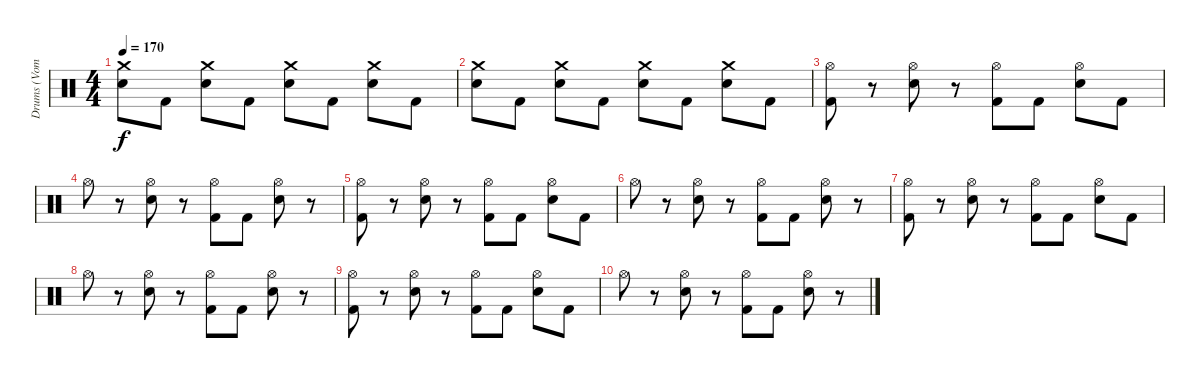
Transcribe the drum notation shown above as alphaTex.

\track ("Drums (Vom)" "Drums (Vom") {instrument percussion}
\staff {score}
\articulation defaults
\ts (4 4)
\tempo 170
\clef neutral
\ks c
("Crash medium (hit)" "Snare (hit) 2").8{dy f} "Kick (hit) 2".8 ("Crash medium (hit)" "Snare (hit) 2").8 "Kick (hit) 2".8 ("Crash medium (hit)" "Snare (hit) 2").8 "Kick (hit) 2".8 ("Crash medium (hit)" "Snare (hit) 2").8 "Kick (hit) 2".8 |
("Crash medium (hit)" "Snare (hit) 2").8 "Kick (hit) 2".8 ("Crash medium (hit)" "Snare (hit) 2").8 "Kick (hit) 2".8 ("Crash medium (hit)" "Snare (hit) 2").8 "Kick (hit) 2".8 ("Crash medium (hit)" "Snare (hit) 2").8 "Kick (hit) 2".8 |
("Hi-Hat (open)" "Kick (hit) 2").8 r.8 ("Hi-Hat (open)" "Snare (hit) 2").8 r.8 ("Hi-Hat (open)" "Kick (hit) 2").8 "Kick (hit) 2".8 ("Hi-Hat (open)" "Snare (hit) 2").8 "Kick (hit) 2".8 |
"Hi-Hat (open)".8 r.8 ("Hi-Hat (open)" "Snare (hit) 2").8 r.8 ("Hi-Hat (open)" "Kick (hit) 2").8 "Kick (hit) 2".8 ("Hi-Hat (open)" "Snare (hit) 2").8 r.8 |
("Hi-Hat (open)" "Kick (hit) 2").8 r.8 ("Hi-Hat (open)" "Snare (hit) 2").8 r.8 ("Hi-Hat (open)" "Kick (hit) 2").8 "Kick (hit) 2".8 ("Hi-Hat (open)" "Snare (hit) 2").8 "Kick (hit) 2".8 |
"Hi-Hat (open)".8 r.8 ("Hi-Hat (open)" "Snare (hit) 2").8 r.8 ("Hi-Hat (open)" "Kick (hit) 2").8 "Kick (hit) 2".8 ("Hi-Hat (open)" "Snare (hit) 2").8 r.8 |
("Hi-Hat (open)" "Kick (hit) 2").8 r.8 ("Hi-Hat (open)" "Snare (hit) 2").8 r.8 ("Hi-Hat (open)" "Kick (hit) 2").8 "Kick (hit) 2".8 ("Hi-Hat (open)" "Snare (hit) 2").8 "Kick (hit) 2".8 |
"Hi-Hat (open)".8 r.8 ("Hi-Hat (open)" "Snare (hit) 2").8 r.8 ("Hi-Hat (open)" "Kick (hit) 2").8 "Kick (hit) 2".8 ("Hi-Hat (open)" "Snare (hit) 2").8 r.8 |
("Hi-Hat (open)" "Kick (hit) 2").8 r.8 ("Hi-Hat (open)" "Snare (hit) 2").8 r.8 ("Hi-Hat (open)" "Kick (hit) 2").8 "Kick (hit) 2".8 ("Hi-Hat (open)" "Snare (hit) 2").8 "Kick (hit) 2".8 |
"Hi-Hat (open)".8 r.8 ("Hi-Hat (open)" "Snare (hit) 2").8 r.8 ("Hi-Hat (open)" "Kick (hit) 2").8 "Kick (hit) 2".8 ("Hi-Hat (open)" "Snare (hit) 2").8 r.8
